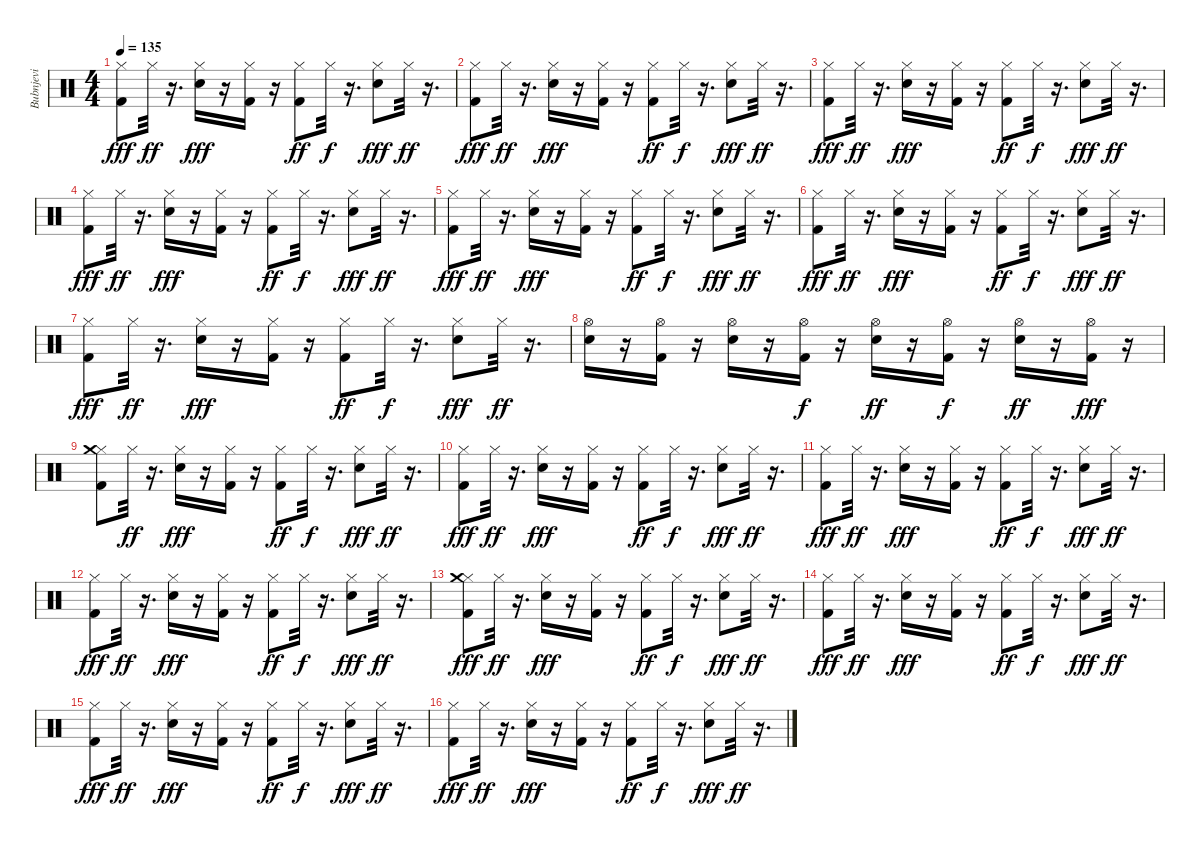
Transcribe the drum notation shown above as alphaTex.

\track ("Bubnjevi" "Bubnjevi") {instrument percussion}
\staff {score}
\articulation defaults
\ts (4 4)
\tempo 135
\clef neutral
\ks c
("Kick (hit) 2" "Hi-Hat (closed)").8{dy fff} "Hi-Hat (closed)".32{dy ff} r.16{d} ("Electric Snare (hit)" "Hi-Hat (closed)").16{dy fff} r.16 ("Kick (hit) 2" "Hi-Hat (closed)").16 r.16 ("Kick (hit) 2" "Hi-Hat (closed)").8{dy ff} "Hi-Hat (closed)".32{dy f} r.16{d} ("Electric Snare (hit)" "Hi-Hat (closed)").8{dy fff} "Hi-Hat (closed)".32{dy ff} r.16{d} |
("Kick (hit) 2" "Hi-Hat (closed)").8{dy fff} "Hi-Hat (closed)".32{dy ff} r.16{d} ("Electric Snare (hit)" "Hi-Hat (closed)").16{dy fff} r.16 ("Kick (hit) 2" "Hi-Hat (closed)").16 r.16 ("Kick (hit) 2" "Hi-Hat (closed)").8{dy ff} "Hi-Hat (closed)".32{dy f} r.16{d} ("Electric Snare (hit)" "Hi-Hat (closed)").8{dy fff} "Hi-Hat (closed)".32{dy ff} r.16{d} |
("Kick (hit) 2" "Hi-Hat (closed)").8{dy fff} "Hi-Hat (closed)".32{dy ff} r.16{d} ("Electric Snare (hit)" "Hi-Hat (closed)").16{dy fff} r.16 ("Kick (hit) 2" "Hi-Hat (closed)").16 r.16 ("Kick (hit) 2" "Hi-Hat (closed)").8{dy ff} "Hi-Hat (closed)".32{dy f} r.16{d} ("Electric Snare (hit)" "Hi-Hat (closed)").8{dy fff} "Hi-Hat (closed)".32{dy ff} r.16{d} |
("Kick (hit) 2" "Hi-Hat (closed)").8{dy fff} "Hi-Hat (closed)".32{dy ff} r.16{d} ("Electric Snare (hit)" "Hi-Hat (closed)").16{dy fff} r.16 ("Kick (hit) 2" "Hi-Hat (closed)").16 r.16 ("Kick (hit) 2" "Hi-Hat (closed)").8{dy ff} "Hi-Hat (closed)".32{dy f} r.16{d} ("Electric Snare (hit)" "Hi-Hat (closed)").8{dy fff} "Hi-Hat (closed)".32{dy ff} r.16{d} |
("Kick (hit) 2" "Hi-Hat (closed)").8{dy fff} "Hi-Hat (closed)".32{dy ff} r.16{d} ("Electric Snare (hit)" "Hi-Hat (closed)").16{dy fff} r.16 ("Kick (hit) 2" "Hi-Hat (closed)").16 r.16 ("Kick (hit) 2" "Hi-Hat (closed)").8{dy ff} "Hi-Hat (closed)".32{dy f} r.16{d} ("Electric Snare (hit)" "Hi-Hat (closed)").8{dy fff} "Hi-Hat (closed)".32{dy ff} r.16{d} |
("Kick (hit) 2" "Hi-Hat (closed)").8{dy fff} "Hi-Hat (closed)".32{dy ff} r.16{d} ("Electric Snare (hit)" "Hi-Hat (closed)").16{dy fff} r.16 ("Kick (hit) 2" "Hi-Hat (closed)").16 r.16 ("Kick (hit) 2" "Hi-Hat (closed)").8{dy ff} "Hi-Hat (closed)".32{dy f} r.16{d} ("Electric Snare (hit)" "Hi-Hat (closed)").8{dy fff} "Hi-Hat (closed)".32{dy ff} r.16{d} |
("Kick (hit) 2" "Hi-Hat (closed)").8{dy fff} "Hi-Hat (closed)".32{dy ff} r.16{d} ("Electric Snare (hit)" "Hi-Hat (closed)").16{dy fff} r.16 ("Kick (hit) 2" "Hi-Hat (closed)").16 r.16 ("Kick (hit) 2" "Hi-Hat (closed)").8{dy ff} "Hi-Hat (closed)".32{dy f} r.16{d} ("Electric Snare (hit)" "Hi-Hat (closed)").8{dy fff} "Hi-Hat (closed)".32{dy ff} r.16{d} |
("Hi-Hat (open)" "Electric Snare (hit)").16 r.16 ("Hi-Hat (open)" "Kick (hit) 2").16 r.16 ("Hi-Hat (open)" "Electric Snare (hit)").16 r.16 ("Hi-Hat (open)" "Kick (hit) 2").16{dy f} r.16 ("Hi-Hat (open)" "Electric Snare (hit)").16{dy ff} r.16 ("Hi-Hat (open)" "Kick (hit) 2").16{dy f} r.16 ("Hi-Hat (open)" "Electric Snare (hit)").16{dy ff} r.16 ("Hi-Hat (open)" "Kick (hit) 2").16{dy fff} r.16 |
("Kick (hit) 2" "Hi-Hat (closed)" "Crash medium (hit)").8 "Hi-Hat (closed)".32{dy ff} r.16{d} ("Electric Snare (hit)" "Hi-Hat (closed)").16{dy fff} r.16 ("Kick (hit) 2" "Hi-Hat (closed)").16 r.16 ("Kick (hit) 2" "Hi-Hat (closed)").8{dy ff} "Hi-Hat (closed)".32{dy f} r.16{d} ("Electric Snare (hit)" "Hi-Hat (closed)").8{dy fff} "Hi-Hat (closed)".32{dy ff} r.16{d} |
("Kick (hit) 2" "Hi-Hat (closed)").8{dy fff} "Hi-Hat (closed)".32{dy ff} r.16{d} ("Electric Snare (hit)" "Hi-Hat (closed)").16{dy fff} r.16 ("Kick (hit) 2" "Hi-Hat (closed)").16 r.16 ("Kick (hit) 2" "Hi-Hat (closed)").8{dy ff} "Hi-Hat (closed)".32{dy f} r.16{d} ("Electric Snare (hit)" "Hi-Hat (closed)").8{dy fff} "Hi-Hat (closed)".32{dy ff} r.16{d} |
("Kick (hit) 2" "Hi-Hat (closed)").8{dy fff} "Hi-Hat (closed)".32{dy ff} r.16{d} ("Electric Snare (hit)" "Hi-Hat (closed)").16{dy fff} r.16 ("Kick (hit) 2" "Hi-Hat (closed)").16 r.16 ("Kick (hit) 2" "Hi-Hat (closed)").8{dy ff} "Hi-Hat (closed)".32{dy f} r.16{d} ("Electric Snare (hit)" "Hi-Hat (closed)").8{dy fff} "Hi-Hat (closed)".32{dy ff} r.16{d} |
("Kick (hit) 2" "Hi-Hat (closed)").8{dy fff} "Hi-Hat (closed)".32{dy ff} r.16{d} ("Electric Snare (hit)" "Hi-Hat (closed)").16{dy fff} r.16 ("Kick (hit) 2" "Hi-Hat (closed)").16 r.16 ("Kick (hit) 2" "Hi-Hat (closed)").8{dy ff} "Hi-Hat (closed)".32{dy f} r.16{d} ("Electric Snare (hit)" "Hi-Hat (closed)").8{dy fff} "Hi-Hat (closed)".32{dy ff} r.16{d} |
("Kick (hit) 2" "Hi-Hat (closed)" "Crash medium (hit)").8{dy fff} "Hi-Hat (closed)".32{dy ff} r.16{d} ("Electric Snare (hit)" "Hi-Hat (closed)").16{dy fff} r.16 ("Kick (hit) 2" "Hi-Hat (closed)").16 r.16 ("Kick (hit) 2" "Hi-Hat (closed)").8{dy ff} "Hi-Hat (closed)".32{dy f} r.16{d} ("Electric Snare (hit)" "Hi-Hat (closed)").8{dy fff} "Hi-Hat (closed)".32{dy ff} r.16{d} |
("Kick (hit) 2" "Hi-Hat (closed)").8{dy fff} "Hi-Hat (closed)".32{dy ff} r.16{d} ("Electric Snare (hit)" "Hi-Hat (closed)").16{dy fff} r.16 ("Kick (hit) 2" "Hi-Hat (closed)").16 r.16 ("Kick (hit) 2" "Hi-Hat (closed)").8{dy ff} "Hi-Hat (closed)".32{dy f} r.16{d} ("Electric Snare (hit)" "Hi-Hat (closed)").8{dy fff} "Hi-Hat (closed)".32{dy ff} r.16{d} |
("Kick (hit) 2" "Hi-Hat (closed)").8{dy fff} "Hi-Hat (closed)".32{dy ff} r.16{d} ("Electric Snare (hit)" "Hi-Hat (closed)").16{dy fff} r.16 ("Kick (hit) 2" "Hi-Hat (closed)").16 r.16 ("Kick (hit) 2" "Hi-Hat (closed)").8{dy ff} "Hi-Hat (closed)".32{dy f} r.16{d} ("Electric Snare (hit)" "Hi-Hat (closed)").8{dy fff} "Hi-Hat (closed)".32{dy ff} r.16{d} |
("Kick (hit) 2" "Hi-Hat (closed)").8{dy fff} "Hi-Hat (closed)".32{dy ff} r.16{d} ("Electric Snare (hit)" "Hi-Hat (closed)").16{dy fff} r.16 ("Kick (hit) 2" "Hi-Hat (closed)").16 r.16 ("Kick (hit) 2" "Hi-Hat (closed)").8{dy ff} "Hi-Hat (closed)".32{dy f} r.16{d} ("Electric Snare (hit)" "Hi-Hat (closed)").8{dy fff} "Hi-Hat (closed)".32{dy ff} r.16{d}
